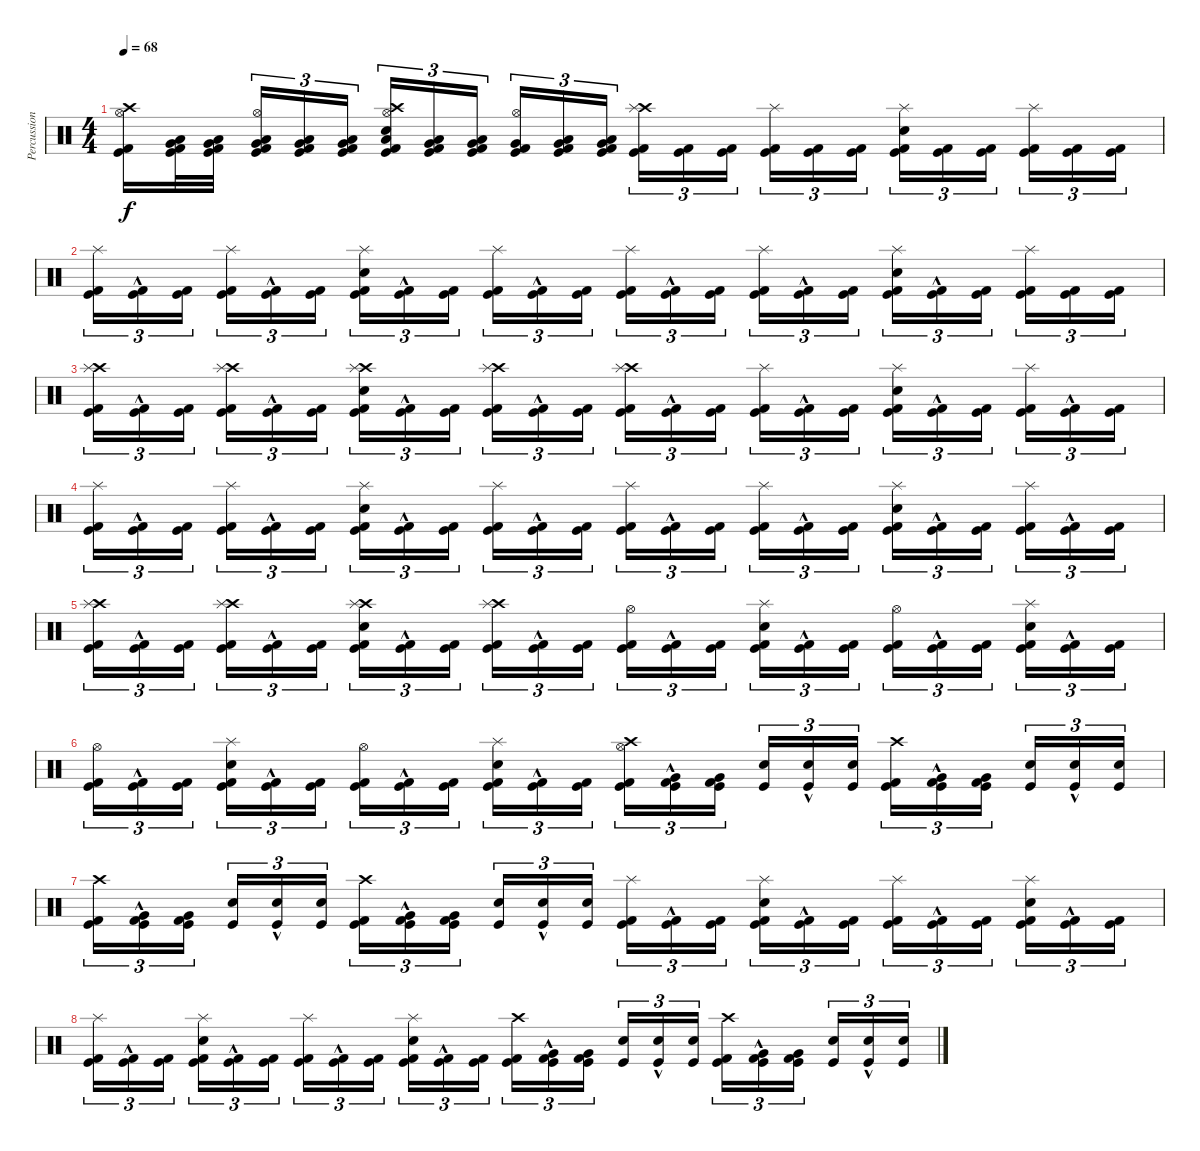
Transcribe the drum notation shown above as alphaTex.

\track ("Percussion" "Percussion") {instrument percussion}
\staff {score}
\articulation defaults
\ts (4 4)
\tempo 68
\clef neutral
\ks c
("Kick (hit)" "Kick (hit) 2" "Hi-Hat (open)" "Crash high (hit)").16{dy f} ("Kick (hit)" "Kick (hit) 2" "Low Floor Tom (hit)" "Very Low Tom (hit)").32 ("Kick (hit)" "Kick (hit) 2" "Low Floor Tom (hit)" "Very Low Tom (hit)").32 ("Kick (hit)" "Kick (hit) 2" "Low Floor Tom (hit)" "Very Low Tom (hit)" "Hi-Hat (open)").16{tu (3 2)} ("Kick (hit)" "Kick (hit) 2" "Low Floor Tom (hit)" "Very Low Tom (hit)").16{tu (3 2)} ("Kick (hit)" "Kick (hit) 2" "Low Floor Tom (hit)" "Very Low Tom (hit)").16{tu (3 2)} ("Kick (hit)" "Kick (hit) 2" "Snare (hit) 2" "Low Floor Tom (hit)" "Hi-Hat (open)" "Crash high (hit)").16{tu (3 2)} ("Kick (hit)" "Kick (hit) 2" "Low Floor Tom (hit)" "Very Low Tom (hit)").16{tu (3 2)} ("Kick (hit)" "Kick (hit) 2" "Low Floor Tom (hit)" "Very Low Tom (hit)").16{tu (3 2)} ("Kick (hit)" "Kick (hit) 2" "Very Low Tom (hit)" "Hi-Hat (open)").16{tu (3 2)} ("Kick (hit)" "Kick (hit) 2" "Low Floor Tom (hit)" "Very Low Tom (hit)").16{tu (3 2)} ("Kick (hit)" "Kick (hit) 2" "Low Floor Tom (hit)" "Very Low Tom (hit)").16{tu (3 2)} ("Kick (hit)" "Kick (hit) 2" "Crash high (hit)" "Splash (hit)").16{tu (3 2)} ("Kick (hit)" "Kick (hit) 2").16{tu (3 2)} ("Kick (hit)" "Kick (hit) 2").16{tu (3 2)} ("Kick (hit)" "Kick (hit) 2" "Splash (hit)").16{tu (3 2)} ("Kick (hit)" "Kick (hit) 2").16{tu (3 2)} ("Kick (hit)" "Kick (hit) 2").16{tu (3 2)} ("Kick (hit)" "Kick (hit) 2" "Snare (hit) 2" "Splash (hit)").16{tu (3 2)} ("Kick (hit)" "Kick (hit) 2").16{tu (3 2)} ("Kick (hit)" "Kick (hit) 2").16{tu (3 2)} ("Kick (hit)" "Kick (hit) 2" "Splash (hit)").16{tu (3 2)} ("Kick (hit)" "Kick (hit) 2").16{tu (3 2)} ("Kick (hit)" "Kick (hit) 2").16{tu (3 2)} |
("Kick (hit)" "Kick (hit) 2" "Splash (hit)").16{tu (3 2)} ("Kick (hit)"{hac} "Kick (hit) 2"{hac}).16{tu (3 2)} ("Kick (hit)" "Kick (hit) 2").16{tu (3 2)} ("Kick (hit)" "Kick (hit) 2" "Splash (hit)").16{tu (3 2)} ("Kick (hit)"{hac} "Kick (hit) 2"{hac}).16{tu (3 2)} ("Kick (hit)" "Kick (hit) 2").16{tu (3 2)} ("Kick (hit)" "Kick (hit) 2" "Snare (hit) 2" "Splash (hit)").16{tu (3 2)} ("Kick (hit)"{hac} "Kick (hit) 2"{hac}).16{tu (3 2)} ("Kick (hit)" "Kick (hit) 2").16{tu (3 2)} ("Kick (hit)" "Kick (hit) 2" "Splash (hit)").16{tu (3 2)} ("Kick (hit)"{hac} "Kick (hit) 2"{hac}).16{tu (3 2)} ("Kick (hit)" "Kick (hit) 2").16{tu (3 2)} ("Kick (hit)" "Kick (hit) 2" "Splash (hit)").16{tu (3 2)} ("Kick (hit)"{hac} "Kick (hit) 2"{hac}).16{tu (3 2)} ("Kick (hit)" "Kick (hit) 2").16{tu (3 2)} ("Kick (hit)" "Kick (hit) 2" "Splash (hit)").16{tu (3 2)} ("Kick (hit)"{hac} "Kick (hit) 2"{hac}).16{tu (3 2)} ("Kick (hit)" "Kick (hit) 2").16{tu (3 2)} ("Kick (hit)" "Kick (hit) 2" "Snare (hit) 2" "Splash (hit)").16{tu (3 2)} ("Kick (hit)"{hac} "Kick (hit) 2"{hac}).16{tu (3 2)} ("Kick (hit)" "Kick (hit) 2").16{tu (3 2)} ("Kick (hit)" "Kick (hit) 2" "Splash (hit)").16{tu (3 2)} ("Kick (hit)" "Kick (hit) 2").16{tu (3 2)} ("Kick (hit)" "Kick (hit) 2").16{tu (3 2)} |
("Kick (hit)" "Kick (hit) 2" "Crash high (hit)" "Splash (hit)").16{tu (3 2)} ("Kick (hit)"{hac} "Kick (hit) 2"{hac}).16{tu (3 2)} ("Kick (hit)" "Kick (hit) 2").16{tu (3 2)} ("Kick (hit)" "Kick (hit) 2" "Crash high (hit)" "Splash (hit)").16{tu (3 2)} ("Kick (hit)"{hac} "Kick (hit) 2"{hac}).16{tu (3 2)} ("Kick (hit)" "Kick (hit) 2").16{tu (3 2)} ("Kick (hit)" "Kick (hit) 2" "Snare (hit) 2" "Crash high (hit)" "Splash (hit)").16{tu (3 2)} ("Kick (hit)"{hac} "Kick (hit) 2"{hac}).16{tu (3 2)} ("Kick (hit)" "Kick (hit) 2").16{tu (3 2)} ("Kick (hit)" "Kick (hit) 2" "Crash high (hit)" "Splash (hit)").16{tu (3 2)} ("Kick (hit)"{hac} "Kick (hit) 2"{hac}).16{tu (3 2)} ("Kick (hit)" "Kick (hit) 2").16{tu (3 2)} ("Kick (hit)" "Kick (hit) 2" "Crash high (hit)" "Splash (hit)").16{tu (3 2)} ("Kick (hit)"{hac} "Kick (hit) 2"{hac}).16{tu (3 2)} ("Kick (hit)" "Kick (hit) 2").16{tu (3 2)} ("Kick (hit)" "Kick (hit) 2" "Splash (hit)").16{tu (3 2)} ("Kick (hit)"{hac} "Kick (hit) 2"{hac}).16{tu (3 2)} ("Kick (hit)" "Kick (hit) 2").16{tu (3 2)} ("Kick (hit)" "Kick (hit) 2" "Snare (hit) 2" "Splash (hit)").16{tu (3 2)} ("Kick (hit)"{hac} "Kick (hit) 2"{hac}).16{tu (3 2)} ("Kick (hit)" "Kick (hit) 2").16{tu (3 2)} ("Kick (hit)" "Kick (hit) 2" "Splash (hit)").16{tu (3 2)} ("Kick (hit)"{hac} "Kick (hit) 2"{hac}).16{tu (3 2)} ("Kick (hit)" "Kick (hit) 2").16{tu (3 2)} |
("Kick (hit)" "Kick (hit) 2" "Splash (hit)").16{tu (3 2)} ("Kick (hit)"{hac} "Kick (hit) 2"{hac}).16{tu (3 2)} ("Kick (hit)" "Kick (hit) 2").16{tu (3 2)} ("Kick (hit)" "Kick (hit) 2" "Splash (hit)").16{tu (3 2)} ("Kick (hit)"{hac} "Kick (hit) 2"{hac}).16{tu (3 2)} ("Kick (hit)" "Kick (hit) 2").16{tu (3 2)} ("Kick (hit)" "Kick (hit) 2" "Snare (hit) 2" "Splash (hit)").16{tu (3 2)} ("Kick (hit)"{hac} "Kick (hit) 2"{hac}).16{tu (3 2)} ("Kick (hit)" "Kick (hit) 2").16{tu (3 2)} ("Kick (hit)" "Kick (hit) 2" "Splash (hit)").16{tu (3 2)} ("Kick (hit)"{hac} "Kick (hit) 2"{hac}).16{tu (3 2)} ("Kick (hit)" "Kick (hit) 2").16{tu (3 2)} ("Kick (hit)" "Kick (hit) 2" "Splash (hit)").16{tu (3 2)} ("Kick (hit)"{hac} "Kick (hit) 2"{hac}).16{tu (3 2)} ("Kick (hit)" "Kick (hit) 2").16{tu (3 2)} ("Kick (hit)" "Kick (hit) 2" "Splash (hit)").16{tu (3 2)} ("Kick (hit)"{hac} "Kick (hit) 2"{hac}).16{tu (3 2)} ("Kick (hit)" "Kick (hit) 2").16{tu (3 2)} ("Kick (hit)" "Kick (hit) 2" "Snare (hit) 2" "Splash (hit)").16{tu (3 2)} ("Kick (hit)"{hac} "Kick (hit) 2"{hac}).16{tu (3 2)} ("Kick (hit)" "Kick (hit) 2").16{tu (3 2)} ("Kick (hit)" "Kick (hit) 2" "Splash (hit)").16{tu (3 2)} ("Kick (hit)"{hac} "Kick (hit) 2"{hac}).16{tu (3 2)} ("Kick (hit)" "Kick (hit) 2").16{tu (3 2)} |
("Kick (hit)" "Kick (hit) 2" "Crash high (hit)" "Splash (hit)").16{tu (3 2)} ("Kick (hit)"{hac} "Kick (hit) 2"{hac}).16{tu (3 2)} ("Kick (hit)" "Kick (hit) 2").16{tu (3 2)} ("Kick (hit)" "Kick (hit) 2" "Crash high (hit)" "Splash (hit)").16{tu (3 2)} ("Kick (hit)"{hac} "Kick (hit) 2"{hac}).16{tu (3 2)} ("Kick (hit)" "Kick (hit) 2").16{tu (3 2)} ("Kick (hit)" "Kick (hit) 2" "Snare (hit) 2" "Crash high (hit)" "Splash (hit)").16{tu (3 2)} ("Kick (hit)"{hac} "Kick (hit) 2"{hac}).16{tu (3 2)} ("Kick (hit)" "Kick (hit) 2").16{tu (3 2)} ("Kick (hit)" "Kick (hit) 2" "Crash high (hit)" "Splash (hit)").16{tu (3 2)} ("Kick (hit)"{hac} "Kick (hit) 2"{hac}).16{tu (3 2)} ("Kick (hit)" "Kick (hit) 2").16{tu (3 2)} ("Kick (hit)" "Kick (hit) 2" "Hi-Hat (open)").16{tu (3 2)} ("Kick (hit)"{hac} "Kick (hit) 2"{hac}).16{tu (3 2)} ("Kick (hit)" "Kick (hit) 2").16{tu (3 2)} ("Kick (hit)" "Kick (hit) 2" "Snare (hit) 2" "Splash (hit)").16{tu (3 2)} ("Kick (hit)"{hac} "Kick (hit) 2"{hac}).16{tu (3 2)} ("Kick (hit)" "Kick (hit) 2").16{tu (3 2)} ("Kick (hit)" "Kick (hit) 2" "Hi-Hat (open)").16{tu (3 2)} ("Kick (hit)"{hac} "Kick (hit) 2"{hac}).16{tu (3 2)} ("Kick (hit)" "Kick (hit) 2").16{tu (3 2)} ("Kick (hit)" "Kick (hit) 2" "Snare (hit) 2" "Splash (hit)").16{tu (3 2)} ("Kick (hit)"{hac} "Kick (hit) 2"{hac}).16{tu (3 2)} ("Kick (hit)" "Kick (hit) 2").16{tu (3 2)} |
("Kick (hit)" "Kick (hit) 2" "Hi-Hat (open)").16{tu (3 2)} ("Kick (hit)"{hac} "Kick (hit) 2"{hac}).16{tu (3 2)} ("Kick (hit)" "Kick (hit) 2").16{tu (3 2)} ("Kick (hit)" "Kick (hit) 2" "Snare (hit) 2" "Splash (hit)").16{tu (3 2)} ("Kick (hit)"{hac} "Kick (hit) 2"{hac}).16{tu (3 2)} ("Kick (hit)" "Kick (hit) 2").16{tu (3 2)} ("Kick (hit)" "Kick (hit) 2" "Hi-Hat (open)").16{tu (3 2)} ("Kick (hit)"{hac} "Kick (hit) 2"{hac}).16{tu (3 2)} ("Kick (hit)" "Kick (hit) 2").16{tu (3 2)} ("Kick (hit)" "Kick (hit) 2" "Snare (hit) 2" "Splash (hit)").16{tu (3 2)} ("Kick (hit)"{hac} "Kick (hit) 2"{hac}).16{tu (3 2)} ("Kick (hit)" "Kick (hit) 2").16{tu (3 2)} ("Kick (hit)" "Kick (hit) 2" "Hi-Hat (open)" "Crash high (hit)").16{tu (3 2)} ("Kick (hit)"{hac} "Kick (hit) 2"{hac} "Very Low Tom (hit)"{hac}).16{tu (3 2)} ("Kick (hit)" "Kick (hit) 2" "Very Low Tom (hit)").16{tu (3 2)} ("Kick (hit)" "Snare (hit) 2").16{tu (3 2)} ("Kick (hit)"{hac} "Snare (hit) 2"{hac}).16{tu (3 2)} ("Kick (hit)" "Snare (hit) 2").16{tu (3 2)} ("Kick (hit)" "Kick (hit) 2" "Crash high (hit)").16{tu (3 2)} ("Kick (hit)"{hac} "Kick (hit) 2"{hac} "Very Low Tom (hit)"{hac}).16{tu (3 2)} ("Kick (hit)" "Kick (hit) 2" "Very Low Tom (hit)").16{tu (3 2)} ("Kick (hit)" "Snare (hit) 2").16{tu (3 2)} ("Kick (hit)"{hac} "Snare (hit) 2"{hac}).16{tu (3 2)} ("Kick (hit)" "Snare (hit) 2").16{tu (3 2)} |
("Kick (hit)" "Kick (hit) 2" "Crash high (hit)").16{tu (3 2)} ("Kick (hit)"{hac} "Kick (hit) 2"{hac} "Very Low Tom (hit)"{hac}).16{tu (3 2)} ("Kick (hit)" "Kick (hit) 2" "Very Low Tom (hit)").16{tu (3 2)} ("Kick (hit)" "Snare (hit) 2").16{tu (3 2)} ("Kick (hit)"{hac} "Snare (hit) 2"{hac}).16{tu (3 2)} ("Kick (hit)" "Snare (hit) 2").16{tu (3 2)} ("Kick (hit)" "Kick (hit) 2" "Crash high (hit)").16{tu (3 2)} ("Kick (hit)"{hac} "Kick (hit) 2"{hac} "Very Low Tom (hit)"{hac}).16{tu (3 2)} ("Kick (hit)" "Kick (hit) 2" "Very Low Tom (hit)").16{tu (3 2)} ("Kick (hit)" "Snare (hit) 2").16{tu (3 2)} ("Kick (hit)"{hac} "Snare (hit) 2"{hac}).16{tu (3 2)} ("Kick (hit)" "Snare (hit) 2").16{tu (3 2)} ("Kick (hit)" "Kick (hit) 2" "Splash (hit)").16{tu (3 2)} ("Kick (hit)"{hac} "Kick (hit) 2"{hac}).16{tu (3 2)} ("Kick (hit)" "Kick (hit) 2").16{tu (3 2)} ("Kick (hit)" "Kick (hit) 2" "Snare (hit) 2" "Splash (hit)").16{tu (3 2)} ("Kick (hit)"{hac} "Kick (hit) 2"{hac}).16{tu (3 2)} ("Kick (hit)" "Kick (hit) 2").16{tu (3 2)} ("Kick (hit)" "Kick (hit) 2" "Splash (hit)").16{tu (3 2)} ("Kick (hit)"{hac} "Kick (hit) 2"{hac}).16{tu (3 2)} ("Kick (hit)" "Kick (hit) 2").16{tu (3 2)} ("Kick (hit)" "Kick (hit) 2" "Snare (hit) 2" "Splash (hit)").16{tu (3 2)} ("Kick (hit)"{hac} "Kick (hit) 2"{hac}).16{tu (3 2)} ("Kick (hit)" "Kick (hit) 2").16{tu (3 2)} |
("Kick (hit)" "Kick (hit) 2" "Splash (hit)").16{tu (3 2)} ("Kick (hit)"{hac} "Kick (hit) 2"{hac}).16{tu (3 2)} ("Kick (hit)" "Kick (hit) 2").16{tu (3 2)} ("Kick (hit)" "Kick (hit) 2" "Snare (hit) 2" "Splash (hit)").16{tu (3 2)} ("Kick (hit)"{hac} "Kick (hit) 2"{hac}).16{tu (3 2)} ("Kick (hit)" "Kick (hit) 2").16{tu (3 2)} ("Kick (hit)" "Kick (hit) 2" "Splash (hit)").16{tu (3 2)} ("Kick (hit)"{hac} "Kick (hit) 2"{hac}).16{tu (3 2)} ("Kick (hit)" "Kick (hit) 2").16{tu (3 2)} ("Kick (hit)" "Kick (hit) 2" "Snare (hit) 2" "Splash (hit)").16{tu (3 2)} ("Kick (hit)"{hac} "Kick (hit) 2"{hac}).16{tu (3 2)} ("Kick (hit)" "Kick (hit) 2").16{tu (3 2)} ("Kick (hit)" "Kick (hit) 2" "Crash high (hit)").16{tu (3 2)} ("Kick (hit)"{hac} "Kick (hit) 2"{hac} "Very Low Tom (hit)"{hac}).16{tu (3 2)} ("Kick (hit)" "Kick (hit) 2" "Very Low Tom (hit)").16{tu (3 2)} ("Kick (hit)" "Snare (hit) 2").16{tu (3 2)} ("Kick (hit)"{hac} "Snare (hit) 2"{hac}).16{tu (3 2)} ("Kick (hit)" "Snare (hit) 2").16{tu (3 2)} ("Kick (hit)" "Kick (hit) 2" "Crash high (hit)").16{tu (3 2)} ("Kick (hit)"{hac} "Kick (hit) 2"{hac} "Very Low Tom (hit)"{hac}).16{tu (3 2)} ("Kick (hit)" "Kick (hit) 2" "Very Low Tom (hit)").16{tu (3 2)} ("Kick (hit)" "Snare (hit) 2").16{tu (3 2)} ("Kick (hit)"{hac} "Snare (hit) 2"{hac}).16{tu (3 2)} ("Kick (hit)" "Snare (hit) 2").16{tu (3 2)}
